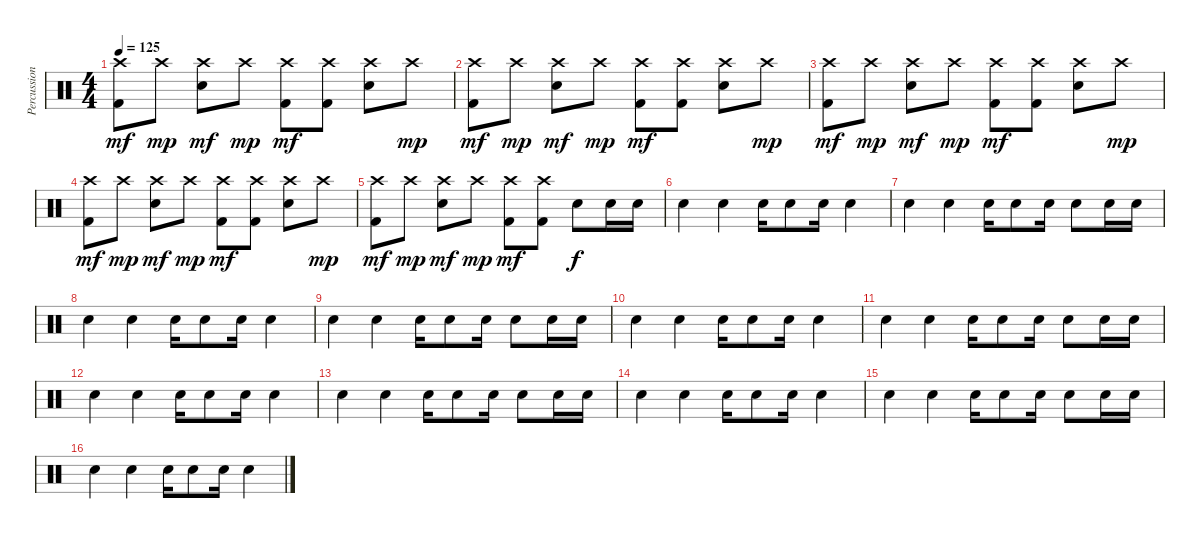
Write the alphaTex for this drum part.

\track ("Percussion" "Percussion") {instrument percussion}
\staff {score}
\articulation defaults
\ts (4 4)
\tempo 125
\clef neutral
\ks c
("Crash high (hit)" "Kick (hit) 2").8{dy mf} "Crash high (hit)".8{dy mp} ("Crash high (hit)" "Electric Snare (hit)").8{dy mf} "Crash high (hit)".8{dy mp} ("Crash high (hit)" "Kick (hit) 2").8{dy mf} ("Crash high (hit)" "Kick (hit) 2").8 ("Crash high (hit)" "Electric Snare (hit)").8 "Crash high (hit)".8{dy mp} |
("Crash high (hit)" "Kick (hit) 2").8{dy mf} "Crash high (hit)".8{dy mp} ("Crash high (hit)" "Electric Snare (hit)").8{dy mf} "Crash high (hit)".8{dy mp} ("Crash high (hit)" "Kick (hit) 2").8{dy mf} ("Crash high (hit)" "Kick (hit) 2").8 ("Crash high (hit)" "Electric Snare (hit)").8 "Crash high (hit)".8{dy mp} |
("Crash high (hit)" "Kick (hit) 2").8{dy mf} "Crash high (hit)".8{dy mp} ("Crash high (hit)" "Electric Snare (hit)").8{dy mf} "Crash high (hit)".8{dy mp} ("Crash high (hit)" "Kick (hit) 2").8{dy mf} ("Crash high (hit)" "Kick (hit) 2").8 ("Crash high (hit)" "Electric Snare (hit)").8 "Crash high (hit)".8{dy mp} |
("Crash high (hit)" "Kick (hit) 2").8{dy mf} "Crash high (hit)".8{dy mp} ("Crash high (hit)" "Electric Snare (hit)").8{dy mf} "Crash high (hit)".8{dy mp} ("Crash high (hit)" "Kick (hit) 2").8{dy mf} ("Crash high (hit)" "Kick (hit) 2").8 ("Crash high (hit)" "Electric Snare (hit)").8 "Crash high (hit)".8{dy mp} |
("Crash high (hit)" "Kick (hit) 2").8{dy mf} "Crash high (hit)".8{dy mp} ("Crash high (hit)" "Electric Snare (hit)").8{dy mf} "Crash high (hit)".8{dy mp} ("Crash high (hit)" "Kick (hit) 2").8{dy mf} ("Crash high (hit)" "Kick (hit) 2").8 "Electric Snare (hit)".8{dy f} "Electric Snare (hit)".16 "Electric Snare (hit)".16 |
"Snare (hit) 2".4{volume 12} "Electric Snare (hit)".4 "Snare (hit) 2".16 "Electric Snare (hit)".8 "Electric Snare (hit)".16 "Electric Snare (hit)".4 |
"Snare (hit) 2".4 "Electric Snare (hit)".4 "Snare (hit) 2".16 "Electric Snare (hit)".8 "Electric Snare (hit)".16 "Electric Snare (hit)".8 "Electric Snare (hit)".16 "Electric Snare (hit)".16 |
"Snare (hit) 2".4 "Electric Snare (hit)".4 "Snare (hit) 2".16 "Electric Snare (hit)".8 "Electric Snare (hit)".16 "Electric Snare (hit)".4 |
"Snare (hit) 2".4 "Electric Snare (hit)".4 "Snare (hit) 2".16 "Electric Snare (hit)".8 "Electric Snare (hit)".16 "Electric Snare (hit)".8 "Electric Snare (hit)".16 "Electric Snare (hit)".16 |
"Snare (hit) 2".4 "Electric Snare (hit)".4{volume 11} "Snare (hit) 2".16 "Electric Snare (hit)".8 "Electric Snare (hit)".16 "Electric Snare (hit)".4 |
"Snare (hit) 2".4 "Electric Snare (hit)".4 "Snare (hit) 2".16 "Electric Snare (hit)".8 "Electric Snare (hit)".16 "Electric Snare (hit)".8 "Electric Snare (hit)".16 "Electric Snare (hit)".16 |
"Snare (hit) 2".4 "Electric Snare (hit)".4 "Snare (hit) 2".16 "Electric Snare (hit)".8 "Electric Snare (hit)".16 "Electric Snare (hit)".4 |
"Snare (hit) 2".4 "Electric Snare (hit)".4 "Snare (hit) 2".16 "Electric Snare (hit)".8 "Electric Snare (hit)".16 "Electric Snare (hit)".8 "Electric Snare (hit)".16 "Electric Snare (hit)".16 |
"Snare (hit) 2".4 "Electric Snare (hit)".4{volume 1} "Snare (hit) 2".16 "Electric Snare (hit)".8 "Electric Snare (hit)".16 "Electric Snare (hit)".4 |
"Snare (hit) 2".4 "Electric Snare (hit)".4 "Snare (hit) 2".16 "Electric Snare (hit)".8 "Electric Snare (hit)".16 "Electric Snare (hit)".8 "Electric Snare (hit)".16 "Electric Snare (hit)".16 |
"Snare (hit) 2".4 "Electric Snare (hit)".4 "Snare (hit) 2".16 "Electric Snare (hit)".8 "Electric Snare (hit)".16 "Electric Snare (hit)".4
